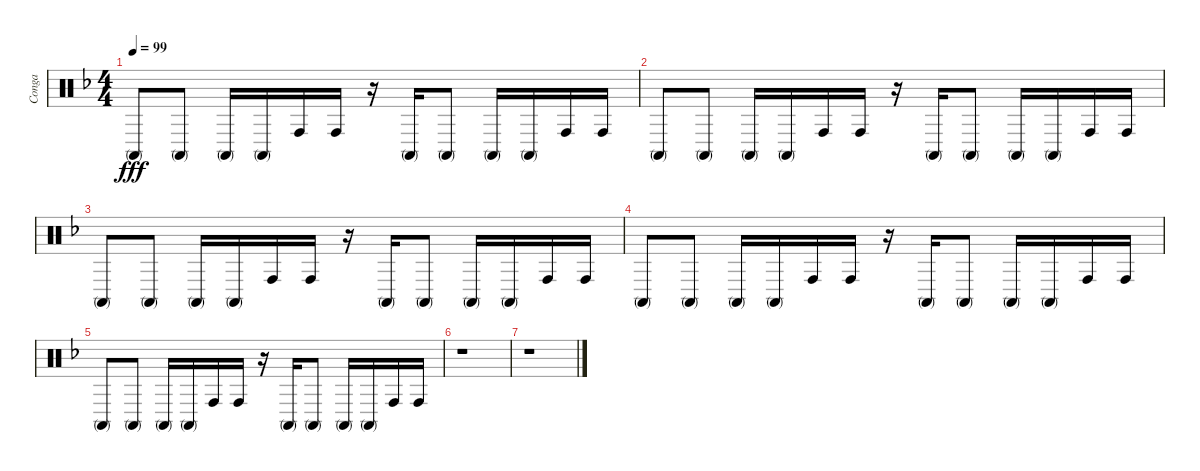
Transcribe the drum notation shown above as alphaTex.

\track ("Conga" "Conga") {instrument percussion}
\staff {score}
\articulation defaults
\ts (4 4)
\tempo 99
\clef neutral
\ks f "Conga high (mute)".8{dy fff} "Conga high (mute)".8 "Conga high (mute)".16 "Conga high (mute)".16 "Conga high (hit)".16 "Conga high (hit)".16
r.16 "Conga high (mute)".16 "Conga high (mute)".8 "Conga high (mute)".16 "Conga high (mute)".16 "Conga high (hit)".16 "Conga high (hit)".16 |
"Conga high (mute)".8 "Conga high (mute)".8 "Conga high (mute)".16 "Conga high (mute)".16 "Conga high (hit)".16 "Conga high (hit)".16 r.16 "Conga high (mute)".16 "Conga high (mute)".8 "Conga high (mute)".16 "Conga high (mute)".16 "Conga high (hit)".16 "Conga high (hit)".16 |
"Conga high (mute)".8 "Conga high (mute)".8 "Conga high (mute)".16 "Conga high (mute)".16 "Conga high (hit)".16 "Conga high (hit)".16 r.16 "Conga high (mute)".16 "Conga high (mute)".8 "Conga high (mute)".16 "Conga high (mute)".16 "Conga high (hit)".16 "Conga high (hit)".16 |
"Conga high (mute)".8 "Conga high (mute)".8 "Conga high (mute)".16 "Conga high (mute)".16 "Conga high (hit)".16 "Conga high (hit)".16 r.16 "Conga high (mute)".16 "Conga high (mute)".8 "Conga high (mute)".16 "Conga high (mute)".16 "Conga high (hit)".16 "Conga high (hit)".16 |
"Conga high (mute)".8 "Conga high (mute)".8 "Conga high (mute)".16 "Conga high (mute)".16 "Conga high (hit)".16 "Conga high (hit)".16 r.16 "Conga high (mute)".16 "Conga high (mute)".8 "Conga high (mute)".16 "Conga high (mute)".16 "Conga high (hit)".16 "Conga high (hit)".16 |
r.1 |
r.1
